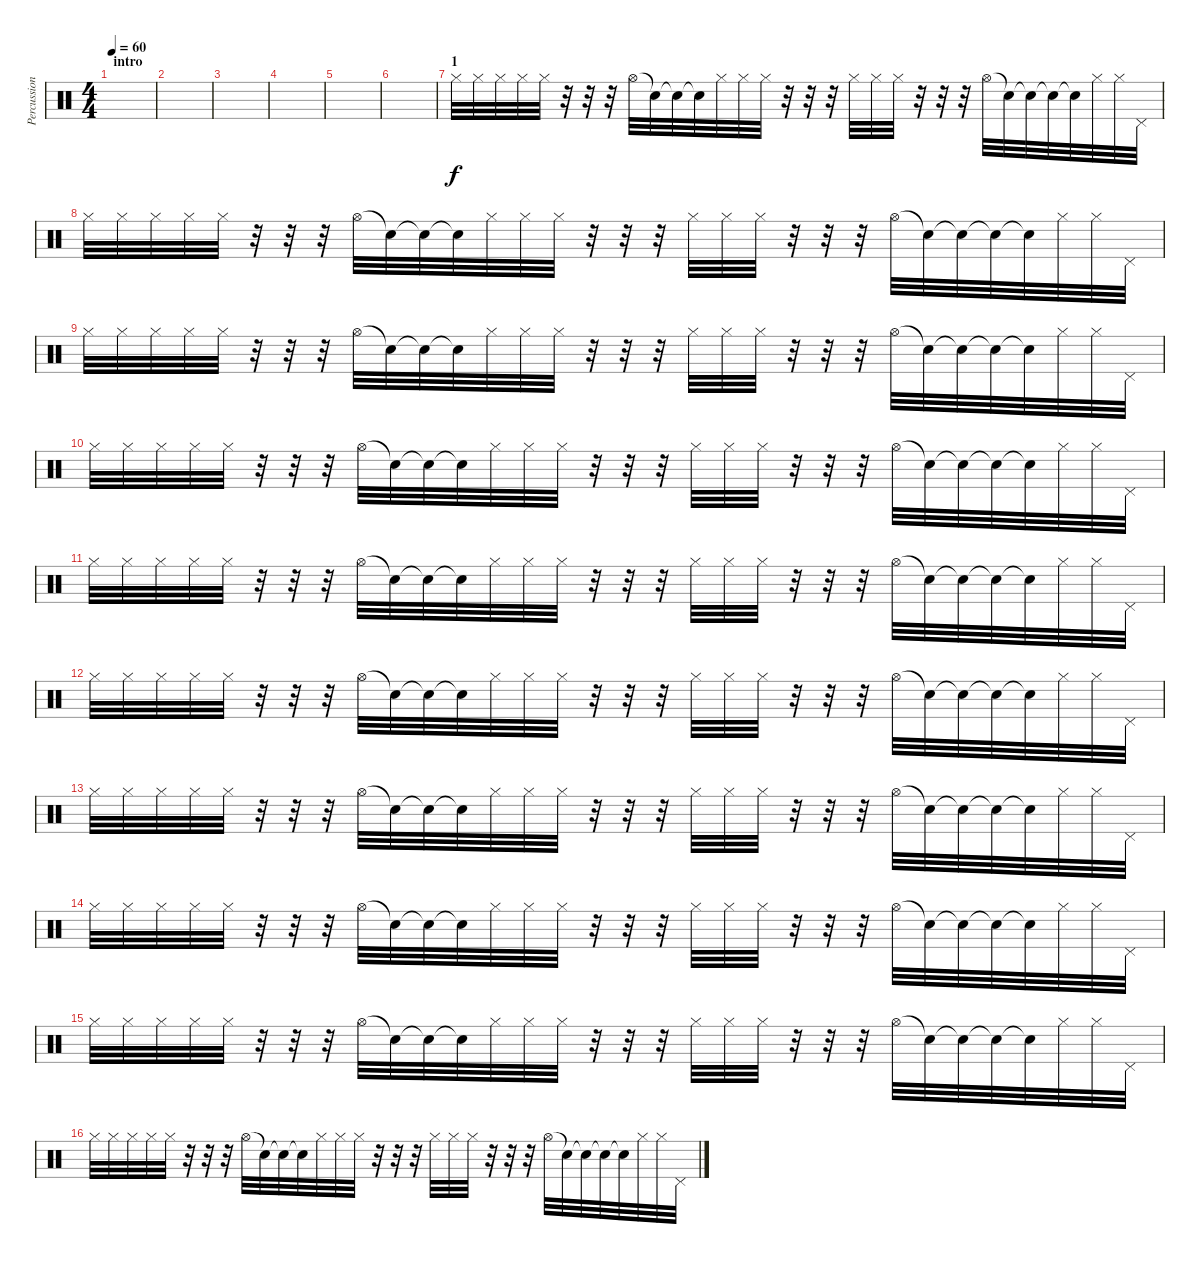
\track ("Percussions (Hit Hat)" "Percussion") {instrument percussion}
\staff {score}
\articulation defaults
\ts (4 4)
\section ("" "intro")
\tempo 60
\clef neutral
\ks c
|
|
|
|
|
|
\section ("" "1")
"Hi-Hat (closed)".32 "Hi-Hat (closed)".32 "Hi-Hat (closed)".32 "Hi-Hat (closed)".32 "Hi-Hat (closed)".32 r.32 r.32 r.32 "Hi-Hat (open)".32 "Snare (hit)"{t}.32 "Snare (hit)"{t}.32 "Snare (hit)"{t}.32 "Hi-Hat (closed)".32 "Hi-Hat (closed)".32 "Hi-Hat (closed)".32 r.32 r.32 r.32 "Hi-Hat (closed)".32 "Hi-Hat (closed)".32 "Hi-Hat (closed)".32 r.32 r.32 r.32 "Hi-Hat (open)".32 "Snare (hit)"{t}.32 "Snare (hit)"{t}.32 "Snare (hit)"{t}.32 "Snare (hit)"{t}.32 "Hi-Hat (closed)".32 "Hi-Hat (closed)".32 "Pedal Hi-Hat (hit)".32 |
"Hi-Hat (closed)".32 "Hi-Hat (closed)".32 "Hi-Hat (closed)".32 "Hi-Hat (closed)".32 "Hi-Hat (closed)".32 r.32 r.32 r.32 "Hi-Hat (open)".32 "Snare (hit)"{t}.32 "Snare (hit)"{t}.32 "Snare (hit)"{t}.32 "Hi-Hat (closed)".32 "Hi-Hat (closed)".32 "Hi-Hat (closed)".32 r.32 r.32 r.32 "Hi-Hat (closed)".32 "Hi-Hat (closed)".32 "Hi-Hat (closed)".32 r.32 r.32 r.32 "Hi-Hat (open)".32 "Snare (hit)"{t}.32 "Snare (hit)"{t}.32 "Snare (hit)"{t}.32 "Snare (hit)"{t}.32 "Hi-Hat (closed)".32 "Hi-Hat (closed)".32 "Pedal Hi-Hat (hit)".32 |
"Hi-Hat (closed)".32 "Hi-Hat (closed)".32 "Hi-Hat (closed)".32 "Hi-Hat (closed)".32 "Hi-Hat (closed)".32 r.32 r.32 r.32 "Hi-Hat (open)".32 "Snare (hit)"{t}.32 "Snare (hit)"{t}.32 "Snare (hit)"{t}.32 "Hi-Hat (closed)".32 "Hi-Hat (closed)".32 "Hi-Hat (closed)".32 r.32 r.32 r.32 "Hi-Hat (closed)".32 "Hi-Hat (closed)".32 "Hi-Hat (closed)".32 r.32 r.32 r.32 "Hi-Hat (open)".32 "Snare (hit)"{t}.32 "Snare (hit)"{t}.32 "Snare (hit)"{t}.32 "Snare (hit)"{t}.32 "Hi-Hat (closed)".32 "Hi-Hat (closed)".32 "Pedal Hi-Hat (hit)".32 |
"Hi-Hat (closed)".32 "Hi-Hat (closed)".32 "Hi-Hat (closed)".32 "Hi-Hat (closed)".32 "Hi-Hat (closed)".32 r.32 r.32 r.32 "Hi-Hat (open)".32 "Snare (hit)"{t}.32 "Snare (hit)"{t}.32 "Snare (hit)"{t}.32 "Hi-Hat (closed)".32 "Hi-Hat (closed)".32 "Hi-Hat (closed)".32 r.32 r.32 r.32 "Hi-Hat (closed)".32 "Hi-Hat (closed)".32 "Hi-Hat (closed)".32 r.32 r.32 r.32 "Hi-Hat (open)".32 "Snare (hit)"{t}.32 "Snare (hit)"{t}.32 "Snare (hit)"{t}.32 "Snare (hit)"{t}.32 "Hi-Hat (closed)".32 "Hi-Hat (closed)".32 "Pedal Hi-Hat (hit)".32 |
"Hi-Hat (closed)".32 "Hi-Hat (closed)".32 "Hi-Hat (closed)".32 "Hi-Hat (closed)".32 "Hi-Hat (closed)".32 r.32 r.32 r.32 "Hi-Hat (open)".32 "Snare (hit)"{t}.32 "Snare (hit)"{t}.32 "Snare (hit)"{t}.32 "Hi-Hat (closed)".32 "Hi-Hat (closed)".32 "Hi-Hat (closed)".32 r.32 r.32 r.32 "Hi-Hat (closed)".32 "Hi-Hat (closed)".32 "Hi-Hat (closed)".32 r.32 r.32 r.32 "Hi-Hat (open)".32 "Snare (hit)"{t}.32 "Snare (hit)"{t}.32 "Snare (hit)"{t}.32 "Snare (hit)"{t}.32 "Hi-Hat (closed)".32 "Hi-Hat (closed)".32 "Pedal Hi-Hat (hit)".32 |
"Hi-Hat (closed)".32 "Hi-Hat (closed)".32 "Hi-Hat (closed)".32 "Hi-Hat (closed)".32 "Hi-Hat (closed)".32 r.32 r.32 r.32 "Hi-Hat (open)".32 "Snare (hit)"{t}.32 "Snare (hit)"{t}.32 "Snare (hit)"{t}.32 "Hi-Hat (closed)".32 "Hi-Hat (closed)".32 "Hi-Hat (closed)".32 r.32 r.32 r.32 "Hi-Hat (closed)".32 "Hi-Hat (closed)".32 "Hi-Hat (closed)".32 r.32 r.32 r.32 "Hi-Hat (open)".32 "Snare (hit)"{t}.32 "Snare (hit)"{t}.32 "Snare (hit)"{t}.32 "Snare (hit)"{t}.32 "Hi-Hat (closed)".32 "Hi-Hat (closed)".32 "Pedal Hi-Hat (hit)".32 |
"Hi-Hat (closed)".32 "Hi-Hat (closed)".32 "Hi-Hat (closed)".32 "Hi-Hat (closed)".32 "Hi-Hat (closed)".32 r.32 r.32 r.32 "Hi-Hat (open)".32 "Snare (hit)"{t}.32 "Snare (hit)"{t}.32 "Snare (hit)"{t}.32 "Hi-Hat (closed)".32 "Hi-Hat (closed)".32 "Hi-Hat (closed)".32 r.32 r.32 r.32 "Hi-Hat (closed)".32 "Hi-Hat (closed)".32 "Hi-Hat (closed)".32 r.32 r.32 r.32 "Hi-Hat (open)".32 "Snare (hit)"{t}.32 "Snare (hit)"{t}.32 "Snare (hit)"{t}.32 "Snare (hit)"{t}.32 "Hi-Hat (closed)".32 "Hi-Hat (closed)".32 "Pedal Hi-Hat (hit)".32 |
"Hi-Hat (closed)".32 "Hi-Hat (closed)".32 "Hi-Hat (closed)".32 "Hi-Hat (closed)".32 "Hi-Hat (closed)".32 r.32 r.32 r.32 "Hi-Hat (open)".32 "Snare (hit)"{t}.32 "Snare (hit)"{t}.32 "Snare (hit)"{t}.32 "Hi-Hat (closed)".32 "Hi-Hat (closed)".32 "Hi-Hat (closed)".32 r.32 r.32 r.32 "Hi-Hat (closed)".32 "Hi-Hat (closed)".32 "Hi-Hat (closed)".32 r.32 r.32 r.32 "Hi-Hat (open)".32 "Snare (hit)"{t}.32 "Snare (hit)"{t}.32 "Snare (hit)"{t}.32 "Snare (hit)"{t}.32 "Hi-Hat (closed)".32 "Hi-Hat (closed)".32 "Pedal Hi-Hat (hit)".32 |
"Hi-Hat (closed)".32 "Hi-Hat (closed)".32 "Hi-Hat (closed)".32 "Hi-Hat (closed)".32 "Hi-Hat (closed)".32 r.32 r.32 r.32 "Hi-Hat (open)".32 "Snare (hit)"{t}.32 "Snare (hit)"{t}.32 "Snare (hit)"{t}.32 "Hi-Hat (closed)".32 "Hi-Hat (closed)".32 "Hi-Hat (closed)".32 r.32 r.32 r.32 "Hi-Hat (closed)".32 "Hi-Hat (closed)".32 "Hi-Hat (closed)".32 r.32 r.32 r.32 "Hi-Hat (open)".32 "Snare (hit)"{t}.32 "Snare (hit)"{t}.32 "Snare (hit)"{t}.32 "Snare (hit)"{t}.32 "Hi-Hat (closed)".32 "Hi-Hat (closed)".32 "Pedal Hi-Hat (hit)".32 |
"Hi-Hat (closed)".32 "Hi-Hat (closed)".32 "Hi-Hat (closed)".32 "Hi-Hat (closed)".32 "Hi-Hat (closed)".32 r.32 r.32 r.32 "Hi-Hat (open)".32 "Snare (hit)"{t}.32 "Snare (hit)"{t}.32 "Snare (hit)"{t}.32 "Hi-Hat (closed)".32 "Hi-Hat (closed)".32 "Hi-Hat (closed)".32 r.32 r.32 r.32 "Hi-Hat (closed)".32 "Hi-Hat (closed)".32 "Hi-Hat (closed)".32 r.32 r.32 r.32 "Hi-Hat (open)".32 "Snare (hit)"{t}.32 "Snare (hit)"{t}.32 "Snare (hit)"{t}.32 "Snare (hit)"{t}.32 "Hi-Hat (closed)".32 "Hi-Hat (closed)".32 "Pedal Hi-Hat (hit)".32
